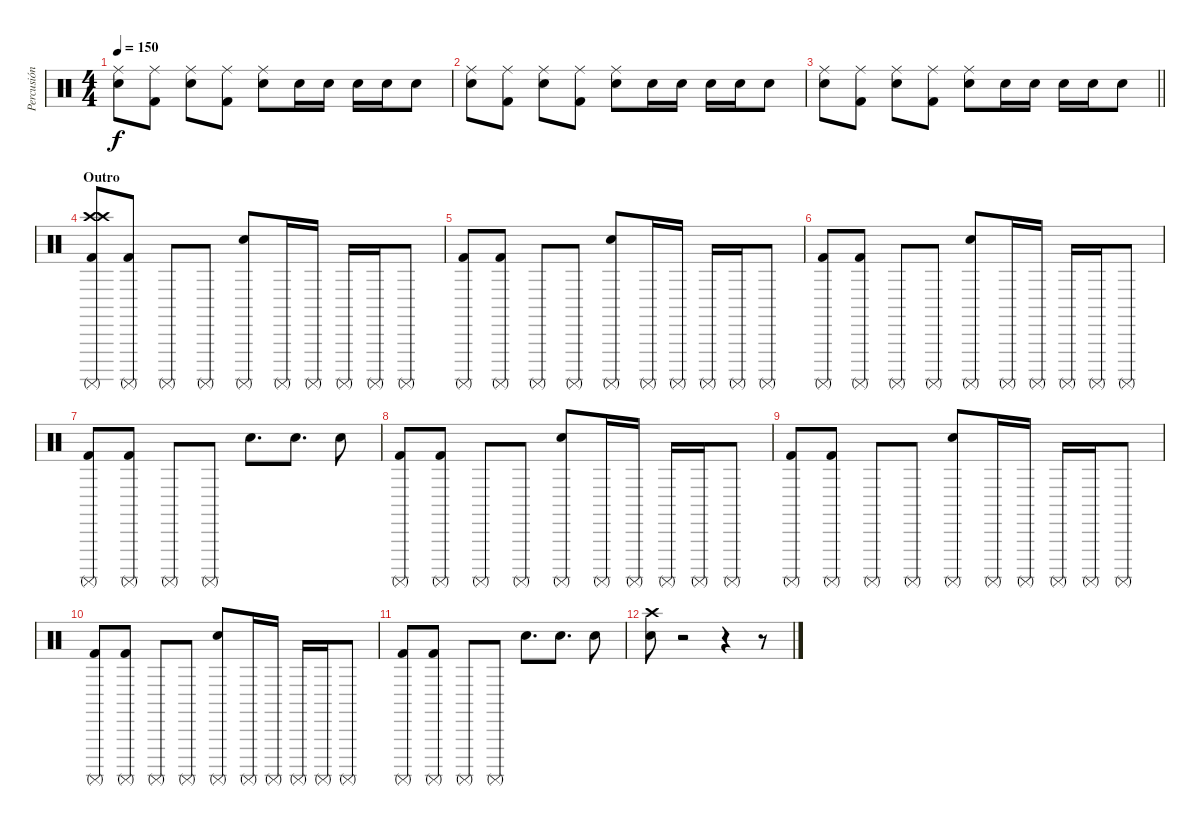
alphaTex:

\track ("Percusión" "Percusión") {instrument percussion}
\staff {score}
\articulation defaults
\ts (4 4)
\tempo 150
\clef neutral
\ks c
("Ride (middle)" "Snare (hit) 2").8{dy f} ("Ride (middle)" "Kick (hit) 2").8 ("Ride (middle)" "Snare (hit) 2").8 ("Ride (middle)" "Kick (hit) 2").8 ("Ride (middle)" "Snare (hit) 2").8 "Snare (hit) 2".16 "Snare (hit) 2".16 "Snare (hit) 2".16 "Snare (hit) 2".16 "Snare (hit) 2".8 |
("Ride (middle)" "Snare (hit) 2").8 ("Ride (middle)" "Kick (hit) 2").8 ("Ride (middle)" "Snare (hit) 2").8 ("Ride (middle)" "Kick (hit) 2").8 ("Ride (middle)" "Snare (hit) 2").8 "Snare (hit) 2".16 "Snare (hit) 2".16 "Snare (hit) 2".16 "Snare (hit) 2".16 "Snare (hit) 2".8 |
\barLineRight lightlight
("Ride (middle)" "Snare (hit) 2").8 ("Ride (middle)" "Kick (hit) 2").8 ("Ride (middle)" "Snare (hit) 2").8 ("Ride (middle)" "Kick (hit) 2").8 ("Ride (middle)" "Snare (hit) 2").8 "Snare (hit) 2".16 "Snare (hit) 2".16 "Snare (hit) 2".16 "Snare (hit) 2".16 "Snare (hit) 2".8 |
\section ("" "Outro")
("Crash high (hit)" "Crash high (hit)" "Kick (hit) 2" "Surdo (mute)").8 ("Kick (hit) 2" "Surdo (mute)").8 "Surdo (mute)".8 "Surdo (mute)".8 ("Snare (hit) 2" "Surdo (mute)").8 "Surdo (mute)".16 "Surdo (mute)".16 "Surdo (mute)".16 "Surdo (mute)".16 "Surdo (mute)".8 |
("Kick (hit) 2" "Surdo (mute)").8 ("Kick (hit) 2" "Surdo (mute)").8 "Surdo (mute)".8 "Surdo (mute)".8 ("Snare (hit) 2" "Surdo (mute)").8 "Surdo (mute)".16 "Surdo (mute)".16 "Surdo (mute)".16 "Surdo (mute)".16 "Surdo (mute)".8 |
("Kick (hit) 2" "Surdo (mute)").8 ("Kick (hit) 2" "Surdo (mute)").8 "Surdo (mute)".8 "Surdo (mute)".8 ("Snare (hit) 2" "Surdo (mute)").8 "Surdo (mute)".16 "Surdo (mute)".16 "Surdo (mute)".16 "Surdo (mute)".16 "Surdo (mute)".8 |
("Kick (hit) 2" "Surdo (mute)").8 ("Kick (hit) 2" "Surdo (mute)").8 "Surdo (mute)".8 "Surdo (mute)".8 "Snare (hit) 2".8{d} "Snare (hit) 2".8{d} "Snare (hit) 2".8 |
("Kick (hit) 2" "Surdo (mute)").8 ("Kick (hit) 2" "Surdo (mute)").8 "Surdo (mute)".8 "Surdo (mute)".8 ("Snare (hit) 2" "Surdo (mute)").8 "Surdo (mute)".16 "Surdo (mute)".16 "Surdo (mute)".16 "Surdo (mute)".16 "Surdo (mute)".8 |
("Kick (hit) 2" "Surdo (mute)").8 ("Kick (hit) 2" "Surdo (mute)").8 "Surdo (mute)".8 "Surdo (mute)".8 ("Snare (hit) 2" "Surdo (mute)").8 "Surdo (mute)".16 "Surdo (mute)".16 "Surdo (mute)".16 "Surdo (mute)".16 "Surdo (mute)".8 |
("Kick (hit) 2" "Surdo (mute)").8 ("Kick (hit) 2" "Surdo (mute)").8 "Surdo (mute)".8 "Surdo (mute)".8 ("Snare (hit) 2" "Surdo (mute)").8 "Surdo (mute)".16 "Surdo (mute)".16 "Surdo (mute)".16 "Surdo (mute)".16 "Surdo (mute)".8 |
("Kick (hit) 2" "Surdo (mute)").8 ("Kick (hit) 2" "Surdo (mute)").8 "Surdo (mute)".8 "Surdo (mute)".8 "Snare (hit) 2".8{d} "Snare (hit) 2".8{d} "Snare (hit) 2".8 |
("Crash high (hit)" "Snare (hit) 2").8 r.2 r.4 r.8
